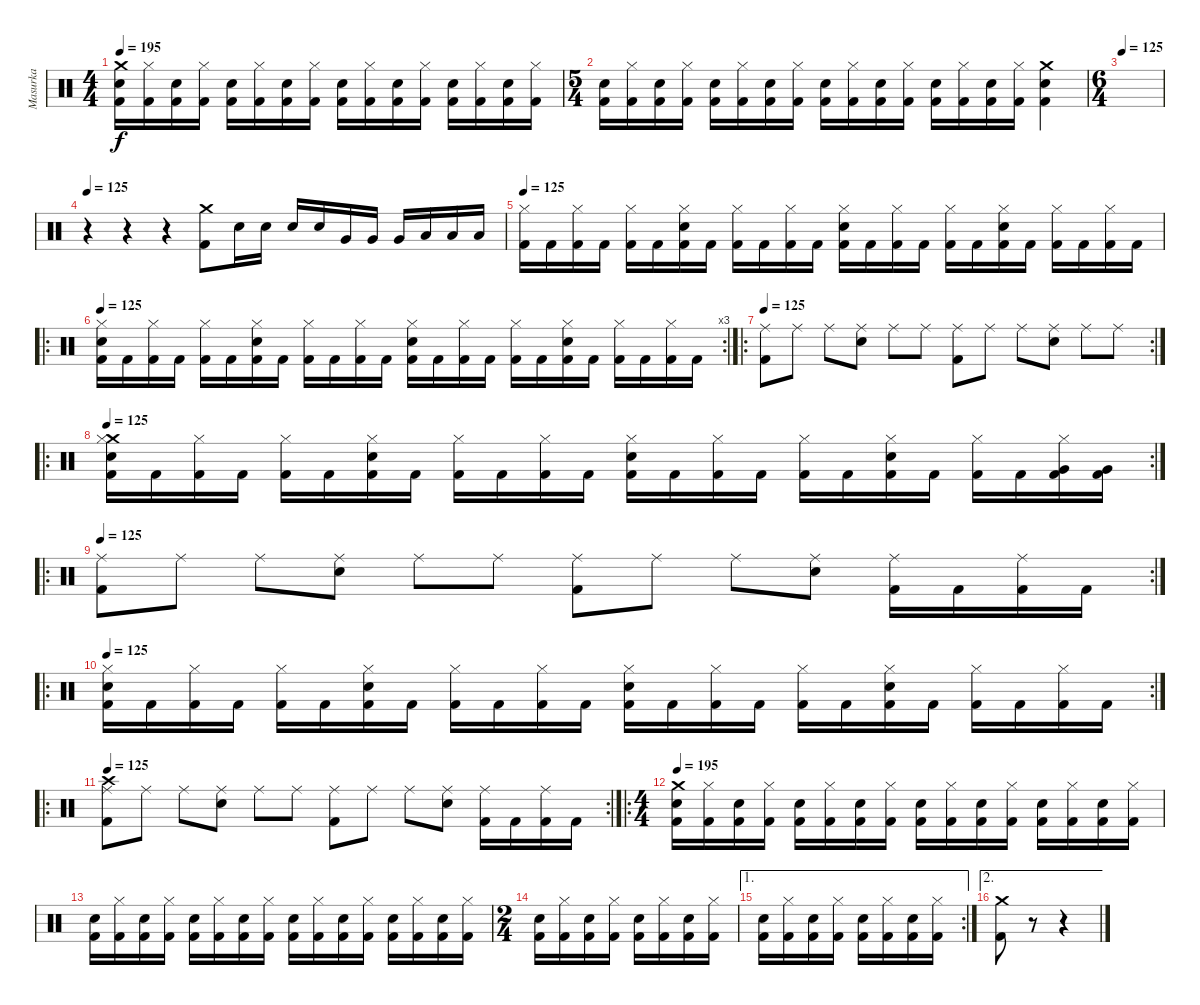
\track ("Masurka" "Masurka") {instrument percussion}
\staff {score}
\articulation defaults
\ts (4 4)
\tempo 195
\clef neutral
\ks c
("Crash medium (hit)" "Kick (hit) 2" "Snare (hit) 2").16{dy f} ("Hi-Hat (closed)" "Kick (hit) 2").16 ("Kick (hit) 2" "Snare (hit) 2").16 ("Hi-Hat (closed)" "Kick (hit) 2").16 ("Kick (hit) 2" "Snare (hit) 2").16 ("Hi-Hat (closed)" "Kick (hit) 2").16 ("Kick (hit) 2" "Snare (hit) 2").16 ("Hi-Hat (closed)" "Kick (hit) 2").16 ("Kick (hit) 2" "Snare (hit) 2").16 ("Hi-Hat (closed)" "Kick (hit) 2").16 ("Kick (hit) 2" "Snare (hit) 2").16 ("Hi-Hat (closed)" "Kick (hit) 2").16 ("Kick (hit) 2" "Snare (hit) 2").16 ("Hi-Hat (closed)" "Kick (hit) 2").16 ("Kick (hit) 2" "Snare (hit) 2").16 ("Hi-Hat (closed)" "Kick (hit) 2").16 |
\ts (5 4)
("Kick (hit) 2" "Snare (hit) 2").16 ("Hi-Hat (closed)" "Kick (hit) 2").16 ("Kick (hit) 2" "Snare (hit) 2").16 ("Hi-Hat (closed)" "Kick (hit) 2").16 ("Kick (hit) 2" "Snare (hit) 2").16 ("Hi-Hat (closed)" "Kick (hit) 2").16 ("Kick (hit) 2" "Snare (hit) 2").16 ("Hi-Hat (closed)" "Kick (hit) 2").16 ("Kick (hit) 2" "Snare (hit) 2").16 ("Hi-Hat (closed)" "Kick (hit) 2").16 ("Kick (hit) 2" "Snare (hit) 2").16 ("Hi-Hat (closed)" "Kick (hit) 2").16 ("Kick (hit) 2" "Snare (hit) 2").16 ("Hi-Hat (closed)" "Kick (hit) 2").16 ("Kick (hit) 2" "Snare (hit) 2").16 ("Hi-Hat (closed)" "Kick (hit) 2").16 ("Crash medium (hit)" "Kick (hit) 2" "Snare (hit) 2").4 |
\ts (6 4)
\tempo 125
|
\tempo 125
r.4 r.4 r.4 ("Crash medium (hit)" "Kick (hit) 2").8 "Snare (hit) 2".16 "Snare (hit) 2".16 "Snare (hit) 2".16 "Snare (hit) 2".16 "Very Low Tom (hit)".16 "Very Low Tom (hit)".16 "Very Low Tom (hit)".16 "Low Floor Tom (hit)".16 "Low Floor Tom (hit)".16 "Low Floor Tom (hit)".16 |
\tempo 125
("Hi-Hat (closed)" "Kick (hit) 2").16 "Kick (hit) 2".16 ("Hi-Hat (closed)" "Kick (hit) 2").16 "Kick (hit) 2".16 ("Hi-Hat (closed)" "Kick (hit) 2").16 "Kick (hit) 2".16 ("Hi-Hat (closed)" "Snare (hit) 2" "Kick (hit) 2").16 "Kick (hit) 2".16 ("Hi-Hat (closed)" "Kick (hit) 2").16 "Kick (hit) 2".16 ("Hi-Hat (closed)" "Kick (hit) 2").16 "Kick (hit) 2".16 ("Hi-Hat (closed)" "Snare (hit) 2" "Kick (hit) 2").16 "Kick (hit) 2".16 ("Hi-Hat (closed)" "Kick (hit) 2").16 "Kick (hit) 2".16 ("Hi-Hat (closed)" "Kick (hit) 2").16 "Kick (hit) 2".16 ("Hi-Hat (closed)" "Snare (hit) 2" "Kick (hit) 2").16 "Kick (hit) 2".16 ("Hi-Hat (closed)" "Kick (hit) 2").16 "Kick (hit) 2".16 ("Hi-Hat (closed)" "Kick (hit) 2").16 "Kick (hit) 2".16 |
\ro
\rc 3
\tempo 125
("Hi-Hat (closed)" "Snare (hit) 2" "Kick (hit) 2").16 "Kick (hit) 2".16 ("Hi-Hat (closed)" "Kick (hit) 2").16 "Kick (hit) 2".16 ("Hi-Hat (closed)" "Kick (hit) 2").16 "Kick (hit) 2".16 ("Hi-Hat (closed)" "Snare (hit) 2" "Kick (hit) 2").16 "Kick (hit) 2".16 ("Hi-Hat (closed)" "Kick (hit) 2").16 "Kick (hit) 2".16 ("Hi-Hat (closed)" "Kick (hit) 2").16 "Kick (hit) 2".16 ("Hi-Hat (closed)" "Snare (hit) 2" "Kick (hit) 2").16 "Kick (hit) 2".16 ("Hi-Hat (closed)" "Kick (hit) 2").16 "Kick (hit) 2".16 ("Hi-Hat (closed)" "Kick (hit) 2").16 "Kick (hit) 2".16 ("Hi-Hat (closed)" "Snare (hit) 2" "Kick (hit) 2").16 "Kick (hit) 2".16 ("Hi-Hat (closed)" "Kick (hit) 2").16 "Kick (hit) 2".16 ("Hi-Hat (closed)" "Kick (hit) 2").16 "Kick (hit) 2".16 |
\ro
\rc 2
\tempo 125
("Ride (middle)" "Kick (hit) 2").8 "Ride (middle)".8 "Ride (middle)".8 ("Ride (middle)" "Snare (hit) 2").8 "Ride (middle)".8 "Ride (middle)".8 ("Ride (middle)" "Kick (hit) 2").8 "Ride (middle)".8 "Ride (middle)".8 ("Ride (middle)" "Snare (hit) 2").8 "Ride (middle)".8 "Ride (middle)".8 |
\ro
\rc 2
\tempo 125
("Crash medium (hit)" "Hi-Hat (closed)" "Snare (hit) 2" "Kick (hit) 2").16 "Kick (hit) 2".16 ("Hi-Hat (closed)" "Kick (hit) 2").16 "Kick (hit) 2".16 ("Hi-Hat (closed)" "Kick (hit) 2").16 "Kick (hit) 2".16 ("Hi-Hat (closed)" "Snare (hit) 2" "Kick (hit) 2").16 "Kick (hit) 2".16 ("Hi-Hat (closed)" "Kick (hit) 2").16 "Kick (hit) 2".16 ("Hi-Hat (closed)" "Kick (hit) 2").16 "Kick (hit) 2".16 ("Hi-Hat (closed)" "Snare (hit) 2" "Kick (hit) 2").16 "Kick (hit) 2".16 ("Hi-Hat (closed)" "Kick (hit) 2").16 "Kick (hit) 2".16 ("Hi-Hat (closed)" "Kick (hit) 2").16 "Kick (hit) 2".16 ("Hi-Hat (closed)" "Snare (hit) 2" "Kick (hit) 2").16 "Kick (hit) 2".16 ("Hi-Hat (closed)" "Kick (hit) 2").16 "Kick (hit) 2".16 ("Hi-Hat (closed)" "Very Low Tom (hit)" "Kick (hit) 2").16 ("Very Low Tom (hit)" "Kick (hit) 2").16 |
\ro
\rc 2
\tempo 125
("Ride (middle)" "Kick (hit) 2").8 "Ride (middle)".8 "Ride (middle)".8 ("Ride (middle)" "Snare (hit) 2").8 "Ride (middle)".8 "Ride (middle)".8 ("Ride (middle)" "Kick (hit) 2").8 "Ride (middle)".8 "Ride (middle)".8 ("Ride (middle)" "Snare (hit) 2").8 ("Ride (middle)" "Kick (hit) 2").16 "Kick (hit) 2".16 ("Ride (middle)" "Kick (hit) 2").16 "Kick (hit) 2".16 |
\ro
\rc 2
\tempo 125
("Hi-Hat (closed)" "Snare (hit) 2" "Kick (hit) 2").16 "Kick (hit) 2".16 ("Hi-Hat (closed)" "Kick (hit) 2").16 "Kick (hit) 2".16 ("Hi-Hat (closed)" "Kick (hit) 2").16 "Kick (hit) 2".16 ("Hi-Hat (closed)" "Snare (hit) 2" "Kick (hit) 2").16 "Kick (hit) 2".16 ("Hi-Hat (closed)" "Kick (hit) 2").16 "Kick (hit) 2".16 ("Hi-Hat (closed)" "Kick (hit) 2").16 "Kick (hit) 2".16 ("Hi-Hat (closed)" "Snare (hit) 2" "Kick (hit) 2").16 "Kick (hit) 2".16 ("Hi-Hat (closed)" "Kick (hit) 2").16 "Kick (hit) 2".16 ("Hi-Hat (closed)" "Kick (hit) 2").16 "Kick (hit) 2".16 ("Hi-Hat (closed)" "Snare (hit) 2" "Kick (hit) 2").16 "Kick (hit) 2".16 ("Hi-Hat (closed)" "Kick (hit) 2").16 "Kick (hit) 2".16 ("Hi-Hat (closed)" "Kick (hit) 2").16 "Kick (hit) 2".16 |
\ro
\rc 2
\tempo 125
("Crash high (hit)" "Ride (middle)" "Kick (hit) 2").8 "Ride (middle)".8 "Ride (middle)".8 ("Ride (middle)" "Snare (hit) 2").8 "Ride (middle)".8 "Ride (middle)".8 ("Ride (middle)" "Kick (hit) 2").8 "Ride (middle)".8 "Ride (middle)".8 ("Ride (middle)" "Snare (hit) 2").8 ("Ride (middle)" "Kick (hit) 2").16 "Kick (hit) 2".16 ("Ride (middle)" "Kick (hit) 2").16 "Kick (hit) 2".16 |
\ro
\ts (4 4)
\tempo 195
("Crash medium (hit)" "Kick (hit) 2" "Snare (hit) 2").16 ("Hi-Hat (closed)" "Kick (hit) 2").16 ("Kick (hit) 2" "Snare (hit) 2").16 ("Hi-Hat (closed)" "Kick (hit) 2").16 ("Kick (hit) 2" "Snare (hit) 2").16 ("Hi-Hat (closed)" "Kick (hit) 2").16 ("Kick (hit) 2" "Snare (hit) 2").16 ("Hi-Hat (closed)" "Kick (hit) 2").16 ("Kick (hit) 2" "Snare (hit) 2").16 ("Hi-Hat (closed)" "Kick (hit) 2").16 ("Kick (hit) 2" "Snare (hit) 2").16 ("Hi-Hat (closed)" "Kick (hit) 2").16 ("Kick (hit) 2" "Snare (hit) 2").16 ("Hi-Hat (closed)" "Kick (hit) 2").16 ("Kick (hit) 2" "Snare (hit) 2").16 ("Hi-Hat (closed)" "Kick (hit) 2").16 |
("Kick (hit) 2" "Snare (hit) 2").16 ("Hi-Hat (closed)" "Kick (hit) 2").16 ("Kick (hit) 2" "Snare (hit) 2").16 ("Hi-Hat (closed)" "Kick (hit) 2").16 ("Kick (hit) 2" "Snare (hit) 2").16 ("Hi-Hat (closed)" "Kick (hit) 2").16 ("Kick (hit) 2" "Snare (hit) 2").16 ("Hi-Hat (closed)" "Kick (hit) 2").16 ("Kick (hit) 2" "Snare (hit) 2").16 ("Hi-Hat (closed)" "Kick (hit) 2").16 ("Kick (hit) 2" "Snare (hit) 2").16 ("Hi-Hat (closed)" "Kick (hit) 2").16 ("Kick (hit) 2" "Snare (hit) 2").16 ("Hi-Hat (closed)" "Kick (hit) 2").16 ("Kick (hit) 2" "Snare (hit) 2").16 ("Hi-Hat (closed)" "Kick (hit) 2").16 |
\ts (2 4)
("Kick (hit) 2" "Snare (hit) 2").16 ("Hi-Hat (closed)" "Kick (hit) 2").16 ("Kick (hit) 2" "Snare (hit) 2").16 ("Hi-Hat (closed)" "Kick (hit) 2").16 ("Kick (hit) 2" "Snare (hit) 2").16 ("Hi-Hat (closed)" "Kick (hit) 2").16 ("Kick (hit) 2" "Snare (hit) 2").16 ("Hi-Hat (closed)" "Kick (hit) 2").16 |
\ae 1
\rc 2
("Kick (hit) 2" "Snare (hit) 2").16 ("Hi-Hat (closed)" "Kick (hit) 2").16 ("Kick (hit) 2" "Snare (hit) 2").16 ("Hi-Hat (closed)" "Kick (hit) 2").16 ("Kick (hit) 2" "Snare (hit) 2").16 ("Hi-Hat (closed)" "Kick (hit) 2").16 ("Kick (hit) 2" "Snare (hit) 2").16 ("Hi-Hat (closed)" "Kick (hit) 2").16 |
\ae 2
("Crash medium (hit)" "Kick (hit) 2").8 r.8 r.4
